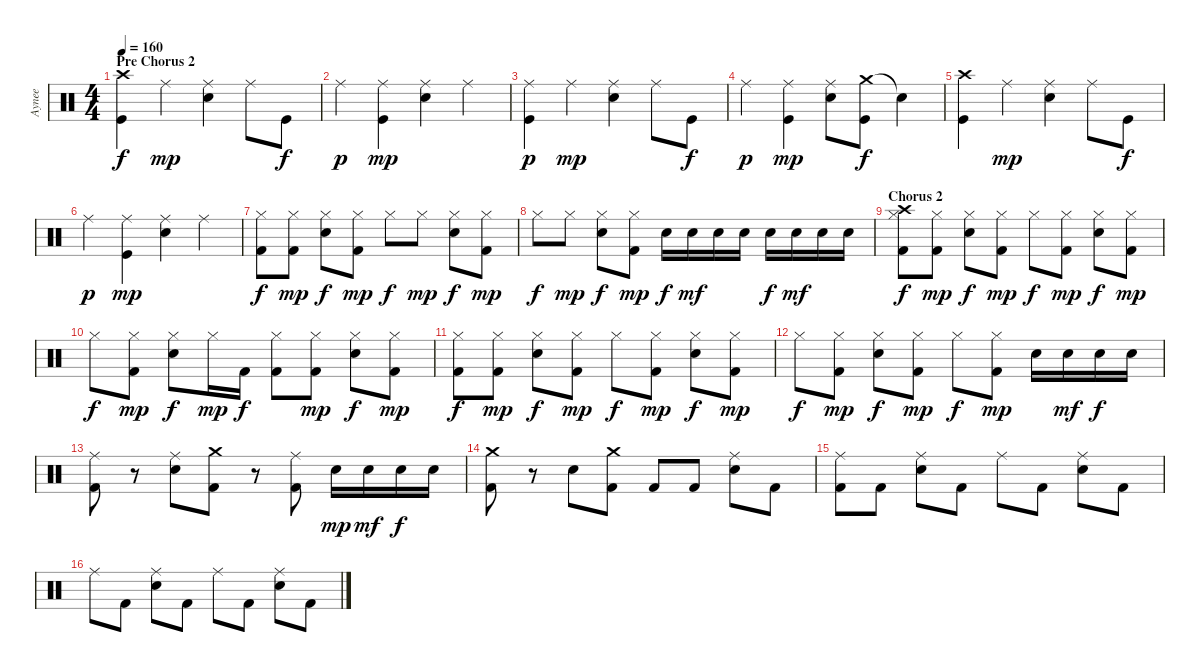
\track ("Aynee " "Aynee ") {instrument percussion}
\staff {score}
\articulation defaults
\ts (4 4)
\section ("" "Pre Chorus 2")
\tempo 160
\clef neutral
\ks c
("Crash high (hit)" "Kick (hit)").4{dy f} "Ride (middle)".4{dy mp} ("Ride (middle)" "Electric Snare (hit)").4 "Ride (middle)".8 "Kick (hit)".8{dy f} |
"Ride (middle)".4{dy p} ("Ride (middle)" "Kick (hit)").4{dy mp} ("Ride (middle)" "Electric Snare (hit)").4 "Ride (middle)".4 |
("Ride (middle)" "Kick (hit)").4{dy p} "Ride (middle)".4{dy mp} ("Ride (middle)" "Electric Snare (hit)").4 "Ride (middle)".8 "Kick (hit)".8{dy f} |
"Ride (middle)".4{dy p} ("Ride (middle)" "Kick (hit)").4{dy mp} ("Ride (middle)" "Electric Snare (hit)").8 ("Crash medium (hit)" "Kick (hit)").8{dy f} "Snare (hit)"{t}.4 |
("Crash high (hit)" "Kick (hit)").4 "Ride (middle)".4{dy mp} ("Ride (middle)" "Electric Snare (hit)").4 "Ride (middle)".8 "Kick (hit)".8{dy f} |
"Ride (middle)".4{dy p} ("Ride (middle)" "Kick (hit)").4{dy mp} ("Ride (middle)" "Electric Snare (hit)").4 "Ride (middle)".4 |
("Hi-Hat (closed)" "Kick (hit) 2").8{dy f} ("Hi-Hat (closed)" "Kick (hit) 2").8{dy mp} ("Hi-Hat (closed)" "Electric Snare (hit)").8{dy f} ("Hi-Hat (closed)" "Kick (hit) 2").8{dy mp} "Hi-Hat (closed)".8{dy f} "Hi-Hat (closed)".8{dy mp} ("Hi-Hat (closed)" "Electric Snare (hit)").8{dy f} ("Hi-Hat (closed)" "Kick (hit) 2").8{dy mp} |
"Hi-Hat (closed)".8{dy f} "Hi-Hat (closed)".8{dy mp} ("Hi-Hat (closed)" "Electric Snare (hit)").8{dy f} ("Hi-Hat (closed)" "Kick (hit) 2").8{dy mp} "Electric Snare (hit)".16{dy f} "Electric Snare (hit)".16{dy mf} "Electric Snare (hit)".16 "Electric Snare (hit)".16 "Electric Snare (hit)".16{dy f} "Electric Snare (hit)".16{dy mf} "Electric Snare (hit)".16 "Electric Snare (hit)".16 |
\section ("" "Chorus 2")
("Crash high (hit)" "Hi-Hat (closed)" "Kick (hit) 2").8{dy f} ("Hi-Hat (closed)" "Kick (hit) 2").8{dy mp} ("Hi-Hat (closed)" "Electric Snare (hit)").8{dy f} ("Hi-Hat (closed)" "Kick (hit) 2").8{dy mp} "Hi-Hat (closed)".8{dy f} ("Hi-Hat (closed)" "Kick (hit) 2").8{dy mp} ("Hi-Hat (closed)" "Electric Snare (hit)").8{dy f} ("Hi-Hat (closed)" "Kick (hit) 2").8{dy mp} |
"Hi-Hat (closed)".8{dy f} ("Hi-Hat (closed)" "Kick (hit) 2").8{dy mp} ("Hi-Hat (closed)" "Electric Snare (hit)").8{dy f} "Hi-Hat (closed)".16{dy mp} "Kick (hit) 2".16{dy f} ("Hi-Hat (closed)" "Kick (hit) 2").8 ("Hi-Hat (closed)" "Kick (hit) 2").8{dy mp} ("Hi-Hat (closed)" "Electric Snare (hit)").8{dy f} ("Hi-Hat (closed)" "Kick (hit) 2").8{dy mp} |
("Hi-Hat (closed)" "Kick (hit) 2").8{dy f} ("Hi-Hat (closed)" "Kick (hit) 2").8{dy mp} ("Hi-Hat (closed)" "Electric Snare (hit)").8{dy f} ("Hi-Hat (closed)" "Kick (hit) 2").8{dy mp} "Hi-Hat (closed)".8{dy f} ("Hi-Hat (closed)" "Kick (hit) 2").8{dy mp} ("Hi-Hat (closed)" "Electric Snare (hit)").8{dy f} ("Hi-Hat (closed)" "Kick (hit) 2").8{dy mp} |
"Hi-Hat (closed)".8{dy f} ("Hi-Hat (closed)" "Kick (hit) 2").8{dy mp} ("Hi-Hat (closed)" "Electric Snare (hit)").8{dy f} ("Hi-Hat (closed)" "Kick (hit) 2").8{dy mp} "Hi-Hat (closed)".8{dy f} ("Hi-Hat (closed)" "Kick (hit) 2").8{dy mp} "Electric Snare (hit)".16 "Electric Snare (hit)".16{dy mf} "Electric Snare (hit)".16{dy f} "Electric Snare (hit)".16 |
("Ride (middle)" "Kick (hit) 2").8 r.8 ("Ride (middle)" "Electric Snare (hit)").8 ("Crash medium (hit)" "Kick (hit) 2").8 r.8 ("Ride (middle)" "Kick (hit) 2").8 "Electric Snare (hit)".16{dy mp} "Electric Snare (hit)".16{dy mf} "Electric Snare (hit)".16{dy f} "Electric Snare (hit)".16 |
("Crash medium (hit)" "Kick (hit) 2").8 r.8 "Electric Snare (hit)".8 ("Crash medium (hit)" "Kick (hit) 2").8 "Kick (hit) 2".8 "Kick (hit) 2".8 ("Ride (middle)" "Electric Snare (hit)").8 "Kick (hit) 2".8 |
("Ride (middle)" "Kick (hit) 2").8 "Kick (hit) 2".8 ("Ride (middle)" "Electric Snare (hit)").8 "Kick (hit) 2".8 "Ride (middle)".8 "Kick (hit) 2".8 ("Ride (middle)" "Electric Snare (hit)").8 "Kick (hit) 2".8 |
"Ride (middle)".8 "Kick (hit) 2".8 ("Ride (middle)" "Electric Snare (hit)").8 "Kick (hit) 2".8 "Ride (middle)".8 "Kick (hit) 2".8 ("Ride (middle)" "Electric Snare (hit)").8 "Kick (hit) 2".8
